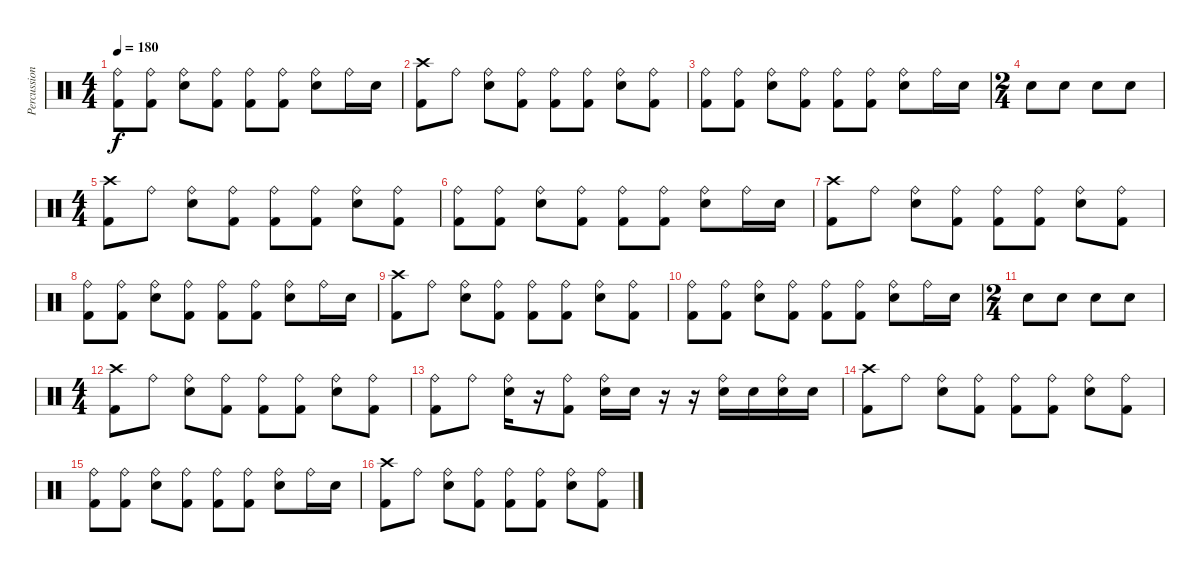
\track ("Percussions" "Percussion") {instrument percussion}
\staff {score}
\articulation defaults
\ts (4 4)
\tempo 180
\clef neutral
\ks c
("Ride (bell)" "Kick (hit) 2").8{dy f} ("Ride (bell)" "Kick (hit) 2").8 ("Ride (bell)" "Snare (hit) 2").8 ("Ride (bell)" "Kick (hit) 2").8 ("Ride (bell)" "Kick (hit) 2").8 ("Ride (bell)" "Kick (hit) 2").8 ("Ride (bell)" "Snare (hit) 2").8 "Ride (bell)".16 "Snare (hit) 2".16 |
("Crash high (hit)" "Kick (hit) 2").8 "Ride (bell)".8 ("Ride (bell)" "Snare (hit) 2").8 ("Ride (bell)" "Kick (hit) 2").8 ("Ride (bell)" "Kick (hit) 2").8 ("Ride (bell)" "Kick (hit) 2").8 ("Ride (bell)" "Snare (hit) 2").8 ("Ride (bell)" "Kick (hit) 2").8 |
("Ride (bell)" "Kick (hit) 2").8 ("Ride (bell)" "Kick (hit) 2").8 ("Ride (bell)" "Snare (hit) 2").8 ("Ride (bell)" "Kick (hit) 2").8 ("Ride (bell)" "Kick (hit) 2").8 ("Ride (bell)" "Kick (hit) 2").8 ("Ride (bell)" "Snare (hit) 2").8 "Ride (bell)".16 "Snare (hit) 2".16 |
\ts (2 4)
"Snare (hit) 2".8 "Snare (hit) 2".8 "Snare (hit) 2".8 "Snare (hit) 2".8 |
\ts (4 4)
("Crash high (hit)" "Kick (hit) 2").8 "Ride (bell)".8 ("Ride (bell)" "Snare (hit) 2").8 ("Ride (bell)" "Kick (hit) 2").8 ("Ride (bell)" "Kick (hit) 2").8 ("Ride (bell)" "Kick (hit) 2").8 ("Ride (bell)" "Snare (hit) 2").8 ("Ride (bell)" "Kick (hit) 2").8 |
("Ride (bell)" "Kick (hit) 2").8 ("Ride (bell)" "Kick (hit) 2").8 ("Ride (bell)" "Snare (hit) 2").8 ("Ride (bell)" "Kick (hit) 2").8 ("Ride (bell)" "Kick (hit) 2").8 ("Ride (bell)" "Kick (hit) 2").8 ("Ride (bell)" "Snare (hit) 2").8 "Ride (bell)".16 "Snare (hit) 2".16 |
("Crash high (hit)" "Kick (hit) 2").8 "Ride (bell)".8 ("Ride (bell)" "Snare (hit) 2").8 ("Ride (bell)" "Kick (hit) 2").8 ("Ride (bell)" "Kick (hit) 2").8 ("Ride (bell)" "Kick (hit) 2").8 ("Ride (bell)" "Snare (hit) 2").8 ("Ride (bell)" "Kick (hit) 2").8 |
("Ride (bell)" "Kick (hit) 2").8 ("Ride (bell)" "Kick (hit) 2").8 ("Ride (bell)" "Snare (hit) 2").8 ("Ride (bell)" "Kick (hit) 2").8 ("Ride (bell)" "Kick (hit) 2").8 ("Ride (bell)" "Kick (hit) 2").8 ("Ride (bell)" "Snare (hit) 2").8 "Ride (bell)".16 "Snare (hit) 2".16 |
("Crash high (hit)" "Kick (hit) 2").8 "Ride (bell)".8 ("Ride (bell)" "Snare (hit) 2").8 ("Ride (bell)" "Kick (hit) 2").8 ("Ride (bell)" "Kick (hit) 2").8 ("Ride (bell)" "Kick (hit) 2").8 ("Ride (bell)" "Snare (hit) 2").8 ("Ride (bell)" "Kick (hit) 2").8 |
("Ride (bell)" "Kick (hit) 2").8 ("Ride (bell)" "Kick (hit) 2").8 ("Ride (bell)" "Snare (hit) 2").8 ("Ride (bell)" "Kick (hit) 2").8 ("Ride (bell)" "Kick (hit) 2").8 ("Ride (bell)" "Kick (hit) 2").8 ("Ride (bell)" "Snare (hit) 2").8 "Ride (bell)".16 "Snare (hit) 2".16 |
\ts (2 4)
"Snare (hit) 2".8 "Snare (hit) 2".8 "Snare (hit) 2".8 "Snare (hit) 2".8 |
\ts (4 4)
("Crash high (hit)" "Kick (hit) 2").8 "Ride (bell)".8 ("Ride (bell)" "Snare (hit) 2").8 ("Ride (bell)" "Kick (hit) 2").8 ("Ride (bell)" "Kick (hit) 2").8 ("Ride (bell)" "Kick (hit) 2").8 ("Ride (bell)" "Snare (hit) 2").8 ("Ride (bell)" "Kick (hit) 2").8 |
("Ride (bell)" "Kick (hit) 2").8 "Ride (bell)".8 ("Ride (bell)" "Snare (hit) 2").16 r.16 ("Ride (bell)" "Kick (hit) 2").8 ("Ride (bell)" "Snare (hit) 2").16 "Snare (hit) 2".16 r.16 r.16 ("Ride (bell)" "Snare (hit) 2").16 "Snare (hit) 2".16 ("Ride (bell)" "Snare (hit) 2").16 "Snare (hit) 2".16 |
("Crash high (hit)" "Kick (hit) 2").8 "Ride (bell)".8 ("Ride (bell)" "Snare (hit) 2").8 ("Ride (bell)" "Kick (hit) 2").8 ("Ride (bell)" "Kick (hit) 2").8 ("Ride (bell)" "Kick (hit) 2").8 ("Ride (bell)" "Snare (hit) 2").8 ("Ride (bell)" "Kick (hit) 2").8 |
("Ride (bell)" "Kick (hit) 2").8 ("Ride (bell)" "Kick (hit) 2").8 ("Ride (bell)" "Snare (hit) 2").8 ("Ride (bell)" "Kick (hit) 2").8 ("Ride (bell)" "Kick (hit) 2").8 ("Ride (bell)" "Kick (hit) 2").8 ("Ride (bell)" "Snare (hit) 2").8 "Ride (bell)".16 "Snare (hit) 2".16 |
("Crash high (hit)" "Kick (hit) 2").8 "Ride (bell)".8 ("Ride (bell)" "Snare (hit) 2").8 ("Ride (bell)" "Kick (hit) 2").8 ("Ride (bell)" "Kick (hit) 2").8 ("Ride (bell)" "Kick (hit) 2").8 ("Ride (bell)" "Snare (hit) 2").8 ("Ride (bell)" "Kick (hit) 2").8
